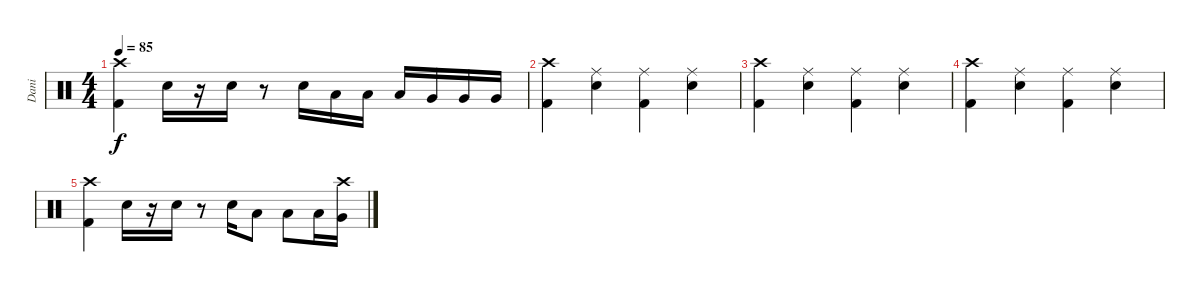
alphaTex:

\track ("Dani" "Dani") {instrument percussion}
\staff {score}
\articulation defaults
\ts (4 4)
\tempo 85
\clef neutral
\ks c
("Kick (hit) 2" "Crash high (hit)").4{dy f} "Snare (hit) 2".16 r.16 "Snare (hit) 2".16 r.8 "Snare (hit) 2".16 "Low Tom (hit)".16 "Low Tom (hit)".16 "Low Tom (hit)".16 "Very Low Tom (hit)".16 "Very Low Tom (hit)".16 "Very Low Tom (hit)".16 |
("Kick (hit) 2" "Crash high (hit)").4 ("Snare (hit) 2" "Ride (middle)").4 ("Kick (hit) 2" "Ride (middle)").4 ("Snare (hit) 2" "Ride (middle)").4 |
("Kick (hit) 2" "Crash high (hit)").4 ("Snare (hit) 2" "Ride (middle)").4 ("Kick (hit) 2" "Ride (middle)").4 ("Snare (hit) 2" "Ride (middle)").4 |
("Kick (hit) 2" "Crash high (hit)").4 ("Snare (hit) 2" "Ride (middle)").4 ("Kick (hit) 2" "Ride (middle)").4 ("Snare (hit) 2" "Ride (middle)").4 |
("Kick (hit) 2" "Crash high (hit)").4 "Snare (hit) 2".16 r.16 "Snare (hit) 2".16 r.8 "Snare (hit) 2".16 "Low Tom (hit)".8 "Low Tom (hit)".8 "Low Tom (hit)".16 ("Very Low Tom (hit)" "Crash high (hit)").16
